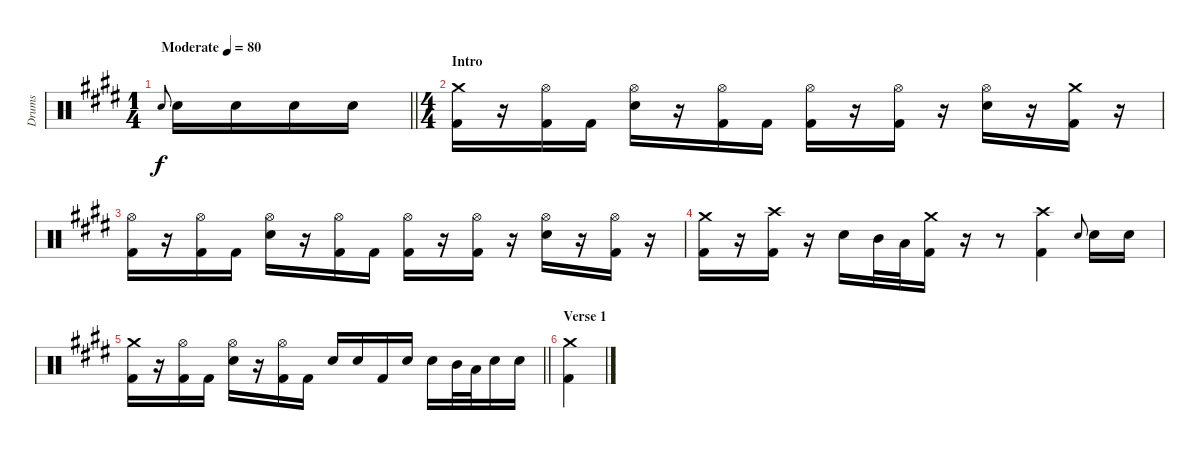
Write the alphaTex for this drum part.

\track ("Drums" "Drums") {instrument percussion}
\staff {score}
\articulation defaults
\ts (1 4)
\tempo (80 "Moderate")
\clef neutral
\barLineRight lightlight
\ks e "Snare (hit) 2".8{gr onbeat dy f} "Snare (hit) 2".16 "Snare (hit) 2".16 "Snare (hit) 2".16 "Snare (hit) 2".16
|
\ts (4 4)
\section ("" "Intro")
("Crash medium (hit)" "Kick (hit) 2").16 r.16 ("Hi-Hat (open)" "Kick (hit) 2").16 "Kick (hit) 2".16 ("Hi-Hat (open)" "Snare (hit) 2").16 r.16 ("Hi-Hat (open)" "Kick (hit) 2").16 "Kick (hit) 2".16 ("Hi-Hat (open)" "Kick (hit) 2").16 r.16 ("Hi-Hat (open)" "Kick (hit) 2").16 r.16 ("Hi-Hat (open)" "Snare (hit) 2").16 r.16 ("Crash medium (hit)" "Kick (hit) 2").16 r.16 |
("Hi-Hat (open)" "Kick (hit) 2").16 r.16 ("Hi-Hat (open)" "Kick (hit) 2").16 "Kick (hit) 2".16 ("Hi-Hat (open)" "Snare (hit) 2").16 r.16 ("Hi-Hat (open)" "Kick (hit) 2").16 "Kick (hit) 2".16 ("Hi-Hat (open)" "Kick (hit) 2").16 r.16 ("Hi-Hat (open)" "Kick (hit) 2").16 r.16 ("Hi-Hat (open)" "Snare (hit) 2").16 r.16 ("Hi-Hat (open)" "Kick (hit) 2").16 r.16 |
("Crash medium (hit)" "Kick (hit) 2").16 r.16 ("Crash high (hit)" "Kick (hit) 2").16 r.16 "Snare (hit) 2".16 "Mid Tom (hit)".32 "Low Tom (hit)".32 ("Crash medium (hit)" "Kick (hit) 2").16 r.16 r.8 ("Crash high (hit)" "Kick (hit) 2").4 "Snare (hit) 2".8{gr onbeat} "Snare (hit) 2".16 "Snare (hit) 2".16 |
\barLineRight lightlight
("Crash medium (hit)" "Kick (hit) 2").16 r.16 ("Hi-Hat (open)" "Kick (hit) 2").16 "Kick (hit) 2".16 ("Hi-Hat (open)" "Snare (hit) 2").16 r.16 ("Hi-Hat (open)" "Kick (hit) 2").16 "Kick (hit) 2".16 "Snare (hit) 2".16 "Snare (hit) 2".16 "Kick (hit) 2".16 "Snare (hit) 2".16 "Snare (hit) 2".16 "Mid Tom (hit)".32 "Low Tom (hit)".32 "Snare (hit) 2".16 "Snare (hit) 2".16 |
\section ("" "Verse 1")
("Crash medium (hit)" "Kick (hit) 2").4
